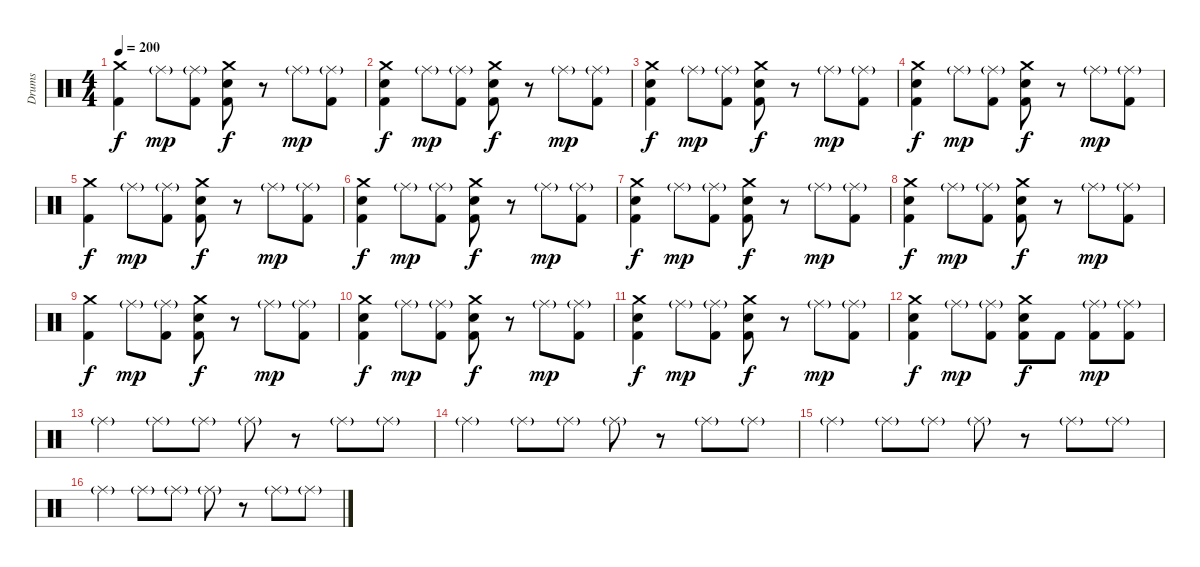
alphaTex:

\track ("Drums" "Drums") {instrument percussion}
\staff {score}
\articulation defaults
\ts (4 4)
\tempo 200
\clef neutral
\ks c
("Crash medium (hit)" "Kick (hit) 2").4{dy f} "Ride (middle)"{g}.8{dy mp} ("Ride (middle)"{g} "Kick (hit) 2").8 ("Crash medium (hit)" "Electric Snare (hit)" "Kick (hit) 2").8{dy f} r.8 "Ride (middle)"{g}.8{dy mp} ("Ride (middle)"{g} "Kick (hit) 2").8 |
("Crash medium (hit)" "Electric Snare (hit)" "Kick (hit) 2").4{dy f} "Ride (middle)"{g}.8{dy mp} ("Ride (middle)"{g} "Kick (hit) 2").8 ("Crash medium (hit)" "Electric Snare (hit)" "Kick (hit) 2").8{dy f} r.8 "Ride (middle)"{g}.8{dy mp} ("Ride (middle)"{g} "Kick (hit) 2").8 |
("Crash medium (hit)" "Electric Snare (hit)" "Kick (hit) 2").4{dy f} "Ride (middle)"{g}.8{dy mp} ("Ride (middle)"{g} "Kick (hit) 2").8 ("Crash medium (hit)" "Electric Snare (hit)" "Kick (hit) 2").8{dy f} r.8 "Ride (middle)"{g}.8{dy mp} ("Ride (middle)"{g} "Kick (hit) 2").8 |
("Crash medium (hit)" "Electric Snare (hit)" "Kick (hit) 2").4{dy f} "Ride (middle)"{g}.8{dy mp} ("Ride (middle)"{g} "Kick (hit) 2").8 ("Crash medium (hit)" "Electric Snare (hit)" "Kick (hit) 2").8{dy f} r.8 "Ride (middle)"{g}.8{dy mp} ("Ride (middle)"{g} "Kick (hit) 2").8 |
("Crash medium (hit)" "Kick (hit) 2").4{dy f} "Ride (middle)"{g}.8{dy mp} ("Ride (middle)"{g} "Kick (hit) 2").8 ("Crash medium (hit)" "Electric Snare (hit)" "Kick (hit) 2").8{dy f} r.8 "Ride (middle)"{g}.8{dy mp} ("Ride (middle)"{g} "Kick (hit) 2").8 |
("Crash medium (hit)" "Electric Snare (hit)" "Kick (hit) 2").4{dy f} "Ride (middle)"{g}.8{dy mp} ("Ride (middle)"{g} "Kick (hit) 2").8 ("Crash medium (hit)" "Electric Snare (hit)" "Kick (hit) 2").8{dy f} r.8 "Ride (middle)"{g}.8{dy mp} ("Ride (middle)"{g} "Kick (hit) 2").8 |
("Crash medium (hit)" "Electric Snare (hit)" "Kick (hit) 2").4{dy f} "Ride (middle)"{g}.8{dy mp} ("Ride (middle)"{g} "Kick (hit) 2").8 ("Crash medium (hit)" "Electric Snare (hit)" "Kick (hit) 2").8{dy f} r.8 "Ride (middle)"{g}.8{dy mp} ("Ride (middle)"{g} "Kick (hit) 2").8 |
("Crash medium (hit)" "Electric Snare (hit)" "Kick (hit) 2").4{dy f} "Ride (middle)"{g}.8{dy mp} ("Ride (middle)"{g} "Kick (hit) 2").8 ("Crash medium (hit)" "Electric Snare (hit)" "Kick (hit) 2").8{dy f} r.8 "Ride (middle)"{g}.8{dy mp} ("Ride (middle)"{g} "Kick (hit) 2").8 |
("Crash medium (hit)" "Kick (hit) 2").4{dy f} "Ride (middle)"{g}.8{dy mp} ("Ride (middle)"{g} "Kick (hit) 2").8 ("Crash medium (hit)" "Electric Snare (hit)" "Kick (hit) 2").8{dy f} r.8 "Ride (middle)"{g}.8{dy mp} ("Ride (middle)"{g} "Kick (hit) 2").8 |
("Crash medium (hit)" "Electric Snare (hit)" "Kick (hit) 2").4{dy f} "Ride (middle)"{g}.8{dy mp} ("Ride (middle)"{g} "Kick (hit) 2").8 ("Crash medium (hit)" "Electric Snare (hit)" "Kick (hit) 2").8{dy f} r.8 "Ride (middle)"{g}.8{dy mp} ("Ride (middle)"{g} "Kick (hit) 2").8 |
("Crash medium (hit)" "Electric Snare (hit)" "Kick (hit) 2").4{dy f} "Ride (middle)"{g}.8{dy mp} ("Ride (middle)"{g} "Kick (hit) 2").8 ("Crash medium (hit)" "Electric Snare (hit)" "Kick (hit) 2").8{dy f} r.8 "Ride (middle)"{g}.8{dy mp} ("Ride (middle)"{g} "Kick (hit) 2").8 |
("Crash medium (hit)" "Electric Snare (hit)" "Kick (hit) 2").4{dy f} "Ride (middle)"{g}.8{dy mp} ("Ride (middle)"{g} "Kick (hit) 2").8 ("Crash medium (hit)" "Electric Snare (hit)" "Kick (hit) 2").8{dy f} "Kick (hit) 2".8 ("Ride (middle)"{g} "Kick (hit) 2").8{dy mp} ("Ride (middle)"{g} "Kick (hit) 2").8 |
"Ride (middle)"{g}.4 "Ride (middle)"{g}.8 "Ride (middle)"{g}.8 "Ride (middle)"{g}.8 r.8 "Ride (middle)"{g}.8 "Ride (middle)"{g}.8 |
"Ride (middle)"{g}.4 "Ride (middle)"{g}.8 "Ride (middle)"{g}.8 "Ride (middle)"{g}.8 r.8 "Ride (middle)"{g}.8 "Ride (middle)"{g}.8 |
"Ride (middle)"{g}.4 "Ride (middle)"{g}.8 "Ride (middle)"{g}.8 "Ride (middle)"{g}.8 r.8 "Ride (middle)"{g}.8 "Ride (middle)"{g}.8 |
"Ride (middle)"{g}.4 "Ride (middle)"{g}.8 "Ride (middle)"{g}.8 "Ride (middle)"{g}.8 r.8 "Ride (middle)"{g}.8 "Ride (middle)"{g}.8
